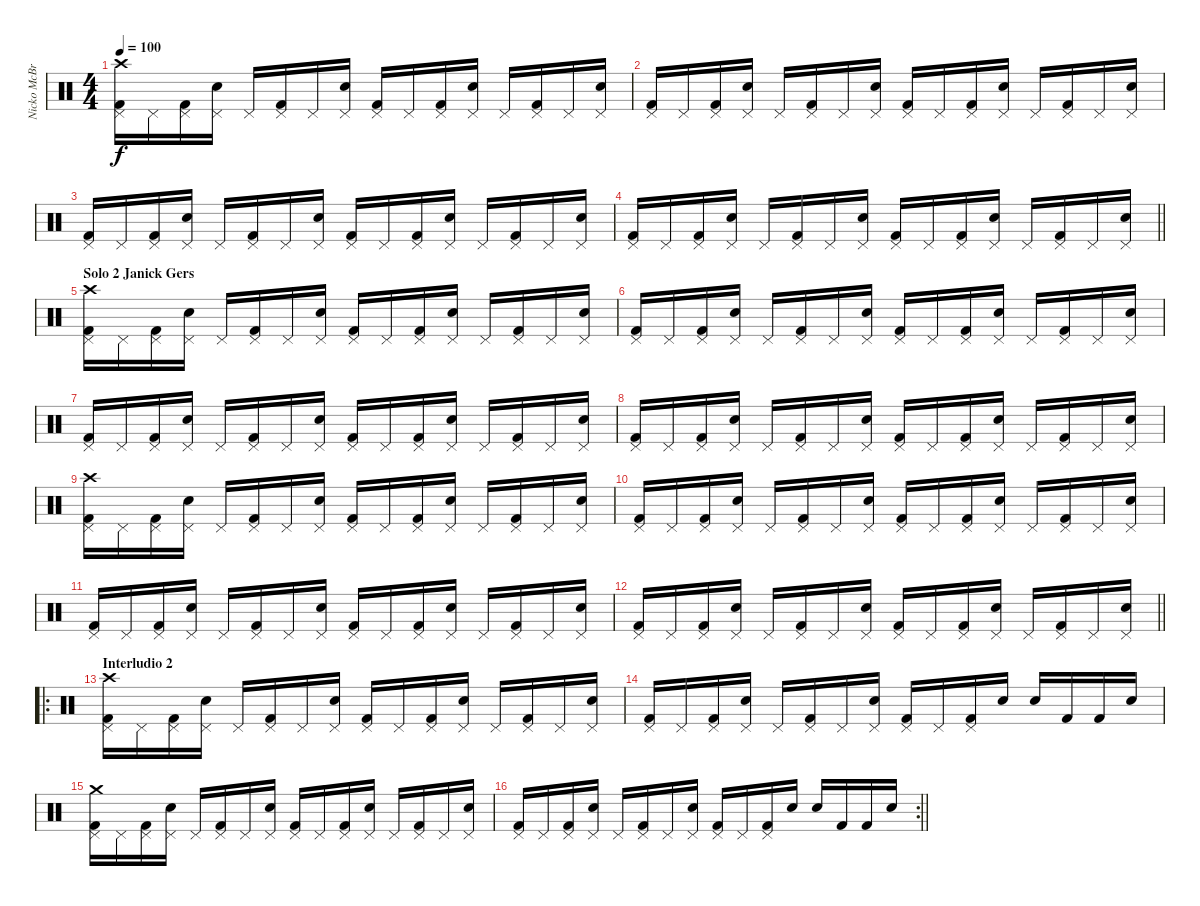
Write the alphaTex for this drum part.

\track ("Nicko McBrain" "Nicko McBr") {instrument percussion}
\staff {score}
\articulation defaults
\ts (4 4)
\tempo 100
\clef neutral
\ks c
("Kick (hit) 2" "Pedal Hi-Hat (hit)" "Crash high (hit)").16{dy f} "Pedal Hi-Hat (hit)".16 ("Kick (hit) 2" "Pedal Hi-Hat (hit)").16 ("Snare (hit) 2" "Pedal Hi-Hat (hit)").16 "Pedal Hi-Hat (hit)".16 ("Kick (hit) 2" "Pedal Hi-Hat (hit)").16 "Pedal Hi-Hat (hit)".16 ("Snare (hit) 2" "Pedal Hi-Hat (hit)").16 ("Kick (hit) 2" "Pedal Hi-Hat (hit)").16 "Pedal Hi-Hat (hit)".16 ("Kick (hit) 2" "Pedal Hi-Hat (hit)").16 ("Snare (hit) 2" "Pedal Hi-Hat (hit)").16 "Pedal Hi-Hat (hit)".16 ("Kick (hit) 2" "Pedal Hi-Hat (hit)").16 "Pedal Hi-Hat (hit)".16 ("Snare (hit) 2" "Pedal Hi-Hat (hit)").16 |
("Kick (hit) 2" "Pedal Hi-Hat (hit)").16 "Pedal Hi-Hat (hit)".16 ("Kick (hit) 2" "Pedal Hi-Hat (hit)").16 ("Snare (hit) 2" "Pedal Hi-Hat (hit)").16 "Pedal Hi-Hat (hit)".16 ("Kick (hit) 2" "Pedal Hi-Hat (hit)").16 "Pedal Hi-Hat (hit)".16 ("Snare (hit) 2" "Pedal Hi-Hat (hit)").16 ("Kick (hit) 2" "Pedal Hi-Hat (hit)").16 "Pedal Hi-Hat (hit)".16 ("Kick (hit) 2" "Pedal Hi-Hat (hit)").16 ("Snare (hit) 2" "Pedal Hi-Hat (hit)").16 "Pedal Hi-Hat (hit)".16 ("Kick (hit) 2" "Pedal Hi-Hat (hit)").16 "Pedal Hi-Hat (hit)".16 ("Snare (hit) 2" "Pedal Hi-Hat (hit)").16 |
("Kick (hit) 2" "Pedal Hi-Hat (hit)").16 "Pedal Hi-Hat (hit)".16 ("Kick (hit) 2" "Pedal Hi-Hat (hit)").16 ("Snare (hit) 2" "Pedal Hi-Hat (hit)").16 "Pedal Hi-Hat (hit)".16 ("Kick (hit) 2" "Pedal Hi-Hat (hit)").16 "Pedal Hi-Hat (hit)".16 ("Snare (hit) 2" "Pedal Hi-Hat (hit)").16 ("Kick (hit) 2" "Pedal Hi-Hat (hit)").16 "Pedal Hi-Hat (hit)".16 ("Kick (hit) 2" "Pedal Hi-Hat (hit)").16 ("Snare (hit) 2" "Pedal Hi-Hat (hit)").16 "Pedal Hi-Hat (hit)".16 ("Kick (hit) 2" "Pedal Hi-Hat (hit)").16 "Pedal Hi-Hat (hit)".16 ("Snare (hit) 2" "Pedal Hi-Hat (hit)").16 |
\barLineRight lightlight
("Kick (hit) 2" "Pedal Hi-Hat (hit)").16 "Pedal Hi-Hat (hit)".16 ("Kick (hit) 2" "Pedal Hi-Hat (hit)").16 ("Snare (hit) 2" "Pedal Hi-Hat (hit)").16 "Pedal Hi-Hat (hit)".16 ("Kick (hit) 2" "Pedal Hi-Hat (hit)").16 "Pedal Hi-Hat (hit)".16 ("Snare (hit) 2" "Pedal Hi-Hat (hit)").16 ("Kick (hit) 2" "Pedal Hi-Hat (hit)").16 "Pedal Hi-Hat (hit)".16 ("Kick (hit) 2" "Pedal Hi-Hat (hit)").16 ("Snare (hit) 2" "Pedal Hi-Hat (hit)").16 "Pedal Hi-Hat (hit)".16 ("Kick (hit) 2" "Pedal Hi-Hat (hit)").16 "Pedal Hi-Hat (hit)".16 ("Snare (hit) 2" "Pedal Hi-Hat (hit)").16 |
\section ("" "Solo 2 Janick Gers")
("Kick (hit) 2" "Pedal Hi-Hat (hit)" "Crash high (hit)").16 "Pedal Hi-Hat (hit)".16 ("Kick (hit) 2" "Pedal Hi-Hat (hit)").16 ("Snare (hit) 2" "Pedal Hi-Hat (hit)").16 "Pedal Hi-Hat (hit)".16 ("Kick (hit) 2" "Pedal Hi-Hat (hit)").16 "Pedal Hi-Hat (hit)".16 ("Snare (hit) 2" "Pedal Hi-Hat (hit)").16 ("Kick (hit) 2" "Pedal Hi-Hat (hit)").16 "Pedal Hi-Hat (hit)".16 ("Kick (hit) 2" "Pedal Hi-Hat (hit)").16 ("Snare (hit) 2" "Pedal Hi-Hat (hit)").16 "Pedal Hi-Hat (hit)".16 ("Kick (hit) 2" "Pedal Hi-Hat (hit)").16 "Pedal Hi-Hat (hit)".16 ("Snare (hit) 2" "Pedal Hi-Hat (hit)").16 |
("Kick (hit) 2" "Pedal Hi-Hat (hit)").16 "Pedal Hi-Hat (hit)".16 ("Kick (hit) 2" "Pedal Hi-Hat (hit)").16 ("Snare (hit) 2" "Pedal Hi-Hat (hit)").16 "Pedal Hi-Hat (hit)".16 ("Kick (hit) 2" "Pedal Hi-Hat (hit)").16 "Pedal Hi-Hat (hit)".16 ("Snare (hit) 2" "Pedal Hi-Hat (hit)").16 ("Kick (hit) 2" "Pedal Hi-Hat (hit)").16 "Pedal Hi-Hat (hit)".16 ("Kick (hit) 2" "Pedal Hi-Hat (hit)").16 ("Snare (hit) 2" "Pedal Hi-Hat (hit)").16 "Pedal Hi-Hat (hit)".16 ("Kick (hit) 2" "Pedal Hi-Hat (hit)").16 "Pedal Hi-Hat (hit)".16 ("Snare (hit) 2" "Pedal Hi-Hat (hit)").16 |
("Kick (hit) 2" "Pedal Hi-Hat (hit)").16 "Pedal Hi-Hat (hit)".16 ("Kick (hit) 2" "Pedal Hi-Hat (hit)").16 ("Snare (hit) 2" "Pedal Hi-Hat (hit)").16 "Pedal Hi-Hat (hit)".16 ("Kick (hit) 2" "Pedal Hi-Hat (hit)").16 "Pedal Hi-Hat (hit)".16 ("Snare (hit) 2" "Pedal Hi-Hat (hit)").16 ("Kick (hit) 2" "Pedal Hi-Hat (hit)").16 "Pedal Hi-Hat (hit)".16 ("Kick (hit) 2" "Pedal Hi-Hat (hit)").16 ("Snare (hit) 2" "Pedal Hi-Hat (hit)").16 "Pedal Hi-Hat (hit)".16 ("Kick (hit) 2" "Pedal Hi-Hat (hit)").16 "Pedal Hi-Hat (hit)".16 ("Snare (hit) 2" "Pedal Hi-Hat (hit)").16 |
("Kick (hit) 2" "Pedal Hi-Hat (hit)").16 "Pedal Hi-Hat (hit)".16 ("Kick (hit) 2" "Pedal Hi-Hat (hit)").16 ("Snare (hit) 2" "Pedal Hi-Hat (hit)").16 "Pedal Hi-Hat (hit)".16 ("Kick (hit) 2" "Pedal Hi-Hat (hit)").16 "Pedal Hi-Hat (hit)".16 ("Snare (hit) 2" "Pedal Hi-Hat (hit)").16 ("Kick (hit) 2" "Pedal Hi-Hat (hit)").16 "Pedal Hi-Hat (hit)".16 ("Kick (hit) 2" "Pedal Hi-Hat (hit)").16 ("Snare (hit) 2" "Pedal Hi-Hat (hit)").16 "Pedal Hi-Hat (hit)".16 ("Kick (hit) 2" "Pedal Hi-Hat (hit)").16 "Pedal Hi-Hat (hit)".16 ("Snare (hit) 2" "Pedal Hi-Hat (hit)").16 |
("Kick (hit) 2" "Pedal Hi-Hat (hit)" "Crash high (hit)").16 "Pedal Hi-Hat (hit)".16 ("Kick (hit) 2" "Pedal Hi-Hat (hit)").16 ("Snare (hit) 2" "Pedal Hi-Hat (hit)").16 "Pedal Hi-Hat (hit)".16 ("Kick (hit) 2" "Pedal Hi-Hat (hit)").16 "Pedal Hi-Hat (hit)".16 ("Snare (hit) 2" "Pedal Hi-Hat (hit)").16 ("Kick (hit) 2" "Pedal Hi-Hat (hit)").16 "Pedal Hi-Hat (hit)".16 ("Kick (hit) 2" "Pedal Hi-Hat (hit)").16 ("Snare (hit) 2" "Pedal Hi-Hat (hit)").16 "Pedal Hi-Hat (hit)".16 ("Kick (hit) 2" "Pedal Hi-Hat (hit)").16 "Pedal Hi-Hat (hit)".16 ("Snare (hit) 2" "Pedal Hi-Hat (hit)").16 |
("Kick (hit) 2" "Pedal Hi-Hat (hit)").16 "Pedal Hi-Hat (hit)".16 ("Kick (hit) 2" "Pedal Hi-Hat (hit)").16 ("Snare (hit) 2" "Pedal Hi-Hat (hit)").16 "Pedal Hi-Hat (hit)".16 ("Kick (hit) 2" "Pedal Hi-Hat (hit)").16 "Pedal Hi-Hat (hit)".16 ("Snare (hit) 2" "Pedal Hi-Hat (hit)").16 ("Kick (hit) 2" "Pedal Hi-Hat (hit)").16 "Pedal Hi-Hat (hit)".16 ("Kick (hit) 2" "Pedal Hi-Hat (hit)").16 ("Snare (hit) 2" "Pedal Hi-Hat (hit)").16 "Pedal Hi-Hat (hit)".16 ("Kick (hit) 2" "Pedal Hi-Hat (hit)").16 "Pedal Hi-Hat (hit)".16 ("Snare (hit) 2" "Pedal Hi-Hat (hit)").16 |
("Kick (hit) 2" "Pedal Hi-Hat (hit)").16 "Pedal Hi-Hat (hit)".16 ("Kick (hit) 2" "Pedal Hi-Hat (hit)").16 ("Snare (hit) 2" "Pedal Hi-Hat (hit)").16 "Pedal Hi-Hat (hit)".16 ("Kick (hit) 2" "Pedal Hi-Hat (hit)").16 "Pedal Hi-Hat (hit)".16 ("Snare (hit) 2" "Pedal Hi-Hat (hit)").16 ("Kick (hit) 2" "Pedal Hi-Hat (hit)").16 "Pedal Hi-Hat (hit)".16 ("Kick (hit) 2" "Pedal Hi-Hat (hit)").16 ("Snare (hit) 2" "Pedal Hi-Hat (hit)").16 "Pedal Hi-Hat (hit)".16 ("Kick (hit) 2" "Pedal Hi-Hat (hit)").16 "Pedal Hi-Hat (hit)".16 ("Snare (hit) 2" "Pedal Hi-Hat (hit)").16 |
\barLineRight lightlight
("Kick (hit) 2" "Pedal Hi-Hat (hit)").16 "Pedal Hi-Hat (hit)".16 ("Kick (hit) 2" "Pedal Hi-Hat (hit)").16 ("Snare (hit) 2" "Pedal Hi-Hat (hit)").16 "Pedal Hi-Hat (hit)".16 ("Kick (hit) 2" "Pedal Hi-Hat (hit)").16 "Pedal Hi-Hat (hit)".16 ("Snare (hit) 2" "Pedal Hi-Hat (hit)").16 ("Kick (hit) 2" "Pedal Hi-Hat (hit)").16 "Pedal Hi-Hat (hit)".16 ("Kick (hit) 2" "Pedal Hi-Hat (hit)").16 ("Snare (hit) 2" "Pedal Hi-Hat (hit)").16 "Pedal Hi-Hat (hit)".16 ("Kick (hit) 2" "Pedal Hi-Hat (hit)").16 "Pedal Hi-Hat (hit)".16 ("Snare (hit) 2" "Pedal Hi-Hat (hit)").16 |
\ro
\section ("" "Interludio 2")
("Kick (hit) 2" "Pedal Hi-Hat (hit)" "Crash high (hit)").16 "Pedal Hi-Hat (hit)".16 ("Kick (hit) 2" "Pedal Hi-Hat (hit)").16 ("Snare (hit) 2" "Pedal Hi-Hat (hit)").16 "Pedal Hi-Hat (hit)".16 ("Kick (hit) 2" "Pedal Hi-Hat (hit)").16 "Pedal Hi-Hat (hit)".16 ("Snare (hit) 2" "Pedal Hi-Hat (hit)").16 ("Kick (hit) 2" "Pedal Hi-Hat (hit)").16 "Pedal Hi-Hat (hit)".16 ("Kick (hit) 2" "Pedal Hi-Hat (hit)").16 ("Snare (hit) 2" "Pedal Hi-Hat (hit)").16 "Pedal Hi-Hat (hit)".16 ("Kick (hit) 2" "Pedal Hi-Hat (hit)").16 "Pedal Hi-Hat (hit)".16 ("Snare (hit) 2" "Pedal Hi-Hat (hit)").16 |
("Kick (hit) 2" "Pedal Hi-Hat (hit)").16 "Pedal Hi-Hat (hit)".16 ("Kick (hit) 2" "Pedal Hi-Hat (hit)").16 ("Snare (hit) 2" "Pedal Hi-Hat (hit)").16 "Pedal Hi-Hat (hit)".16 ("Kick (hit) 2" "Pedal Hi-Hat (hit)").16 "Pedal Hi-Hat (hit)".16 ("Snare (hit) 2" "Pedal Hi-Hat (hit)").16 ("Kick (hit) 2" "Pedal Hi-Hat (hit)").16 "Pedal Hi-Hat (hit)".16 ("Kick (hit) 2" "Pedal Hi-Hat (hit)").16 "Snare (hit) 2".16 "Snare (hit) 2".16 "Kick (hit) 2".16 "Kick (hit) 2".16 "Snare (hit) 2".16 |
("Kick (hit) 2" "Pedal Hi-Hat (hit)" "Crash medium (hit)").16 "Pedal Hi-Hat (hit)".16 ("Kick (hit) 2" "Pedal Hi-Hat (hit)").16 ("Snare (hit) 2" "Pedal Hi-Hat (hit)").16 "Pedal Hi-Hat (hit)".16 ("Kick (hit) 2" "Pedal Hi-Hat (hit)").16 "Pedal Hi-Hat (hit)".16 ("Snare (hit) 2" "Pedal Hi-Hat (hit)").16 ("Kick (hit) 2" "Pedal Hi-Hat (hit)").16 "Pedal Hi-Hat (hit)".16 ("Kick (hit) 2" "Pedal Hi-Hat (hit)").16 ("Snare (hit) 2" "Pedal Hi-Hat (hit)").16 "Pedal Hi-Hat (hit)".16 ("Kick (hit) 2" "Pedal Hi-Hat (hit)").16 "Pedal Hi-Hat (hit)".16 ("Snare (hit) 2" "Pedal Hi-Hat (hit)").16 |
\rc 2
\barLineRight lightlight
("Kick (hit) 2" "Pedal Hi-Hat (hit)").16 "Pedal Hi-Hat (hit)".16 ("Kick (hit) 2" "Pedal Hi-Hat (hit)").16 ("Snare (hit) 2" "Pedal Hi-Hat (hit)").16 "Pedal Hi-Hat (hit)".16 ("Kick (hit) 2" "Pedal Hi-Hat (hit)").16 "Pedal Hi-Hat (hit)".16 ("Snare (hit) 2" "Pedal Hi-Hat (hit)").16 ("Kick (hit) 2" "Pedal Hi-Hat (hit)").16 "Pedal Hi-Hat (hit)".16 ("Kick (hit) 2" "Pedal Hi-Hat (hit)").16 "Snare (hit) 2".16 "Snare (hit) 2".16 "Kick (hit) 2".16 "Kick (hit) 2".16 "Snare (hit) 2".16
